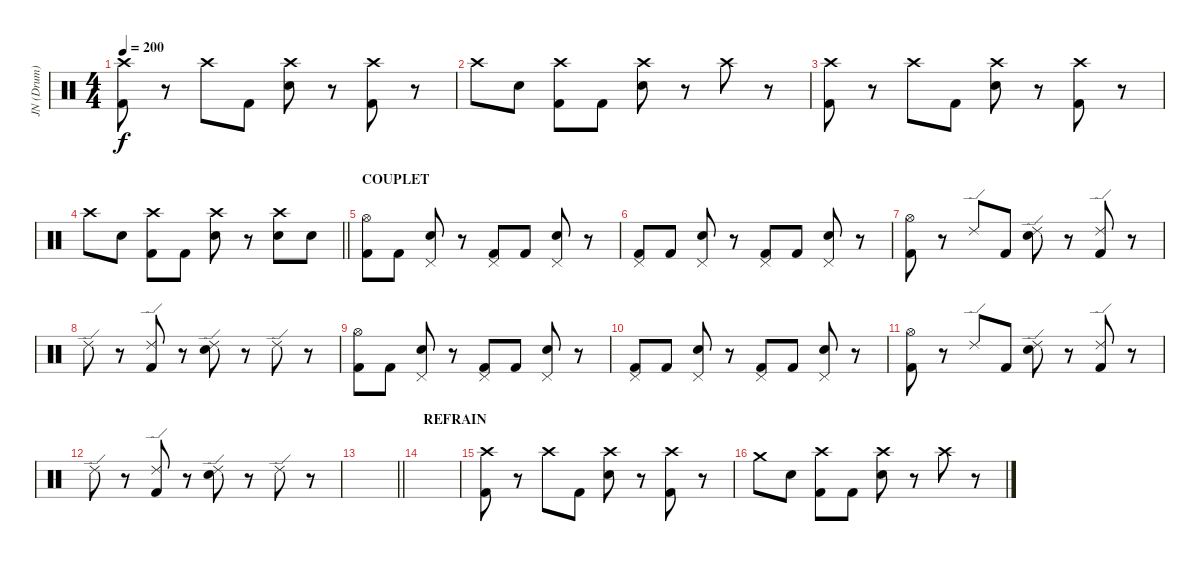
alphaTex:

\track ("JN (Drum)" "JN (Drum)") {instrument percussion}
\staff {score}
\articulation defaults
\ts (4 4)
\tempo 200
\clef neutral
\ks c
("Crash high (hit)" "Kick (hit) 2").8{dy f} r.8 "Crash high (hit)".8 "Kick (hit) 2".8 ("Crash high (hit)" "Electric Snare (hit)").8 r.8 ("Crash high (hit)" "Kick (hit) 2").8 r.8 |
"Crash high (hit)".8 "Electric Snare (hit)".8 ("Crash high (hit)" "Kick (hit) 2").8 "Kick (hit) 2".8 ("Crash high (hit)" "Electric Snare (hit)").8 r.8 "Crash high (hit)".8 r.8 |
("Crash high (hit)" "Kick (hit) 2").8 r.8 "Crash high (hit)".8 "Kick (hit) 2".8 ("Crash high (hit)" "Electric Snare (hit)").8 r.8 ("Crash high (hit)" "Kick (hit) 2").8 r.8 |
\barLineRight lightlight "Crash high (hit)".8 "Electric Snare (hit)".8
("Crash high (hit)" "Kick (hit) 2").8 "Kick (hit) 2".8 ("Crash high (hit)" "Electric Snare (hit)").8 r.8 ("Crash high (hit)" "Electric Snare (hit)").8 "Electric Snare (hit)".8 |
\section ("" "COUPLET")
("Hi-Hat (open)" "Kick (hit) 2").8 "Kick (hit) 2".8 ("Pedal Hi-Hat (hit)" "Electric Snare (hit)").8 r.8 ("Pedal Hi-Hat (hit)" "Kick (hit) 2").8 "Kick (hit) 2".8 ("Pedal Hi-Hat (hit)" "Electric Snare (hit)").8 r.8 |
("Pedal Hi-Hat (hit)" "Kick (hit) 2").8 "Kick (hit) 2".8 ("Pedal Hi-Hat (hit)" "Electric Snare (hit)").8 r.8 ("Pedal Hi-Hat (hit)" "Kick (hit) 2").8 "Kick (hit) 2".8 ("Pedal Hi-Hat (hit)" "Electric Snare (hit)").8 r.8 |
("Hi-Hat (open)" "Kick (hit) 2").8 r.8 "Ride (edge) 2".8 "Kick (hit) 2".8 ("Ride (edge) 2" "Electric Snare (hit)").8 r.8 ("Ride (edge) 2" "Kick (hit) 2").8 r.8 |
"Ride (edge) 2".8 r.8 ("Ride (edge) 2" "Kick (hit) 2").8 r.8 ("Ride (edge) 2" "Electric Snare (hit)").8 r.8 "Ride (edge) 2".8 r.8 |
("Hi-Hat (open)" "Kick (hit) 2").8 "Kick (hit) 2".8 ("Pedal Hi-Hat (hit)" "Electric Snare (hit)").8 r.8 ("Pedal Hi-Hat (hit)" "Kick (hit) 2").8 "Kick (hit) 2".8 ("Pedal Hi-Hat (hit)" "Electric Snare (hit)").8 r.8 |
("Pedal Hi-Hat (hit)" "Kick (hit) 2").8 "Kick (hit) 2".8 ("Pedal Hi-Hat (hit)" "Electric Snare (hit)").8 r.8 ("Pedal Hi-Hat (hit)" "Kick (hit) 2").8 "Kick (hit) 2".8 ("Pedal Hi-Hat (hit)" "Electric Snare (hit)").8 r.8 |
("Hi-Hat (open)" "Kick (hit) 2").8 r.8 "Ride (edge) 2".8 "Kick (hit) 2".8 ("Ride (edge) 2" "Electric Snare (hit)").8 r.8 ("Ride (edge) 2" "Kick (hit) 2").8 r.8 |
"Ride (edge) 2".8 r.8 ("Ride (edge) 2" "Kick (hit) 2").8 r.8 ("Ride (edge) 2" "Electric Snare (hit)").8 r.8 "Ride (edge) 2".8 r.8 |
\barLineRight lightlight
|
\section ("" "REFRAIN")
|
("Crash high (hit)" "Kick (hit) 2").8 r.8 "Crash high (hit)".8 "Kick (hit) 2".8 ("Crash high (hit)" "Electric Snare (hit)").8 r.8 ("Crash high (hit)" "Kick (hit) 2").8 r.8 |
"Crash medium (hit)".8 "Electric Snare (hit)".8 ("Crash high (hit)" "Kick (hit) 2").8 "Kick (hit) 2".8 ("Crash high (hit)" "Electric Snare (hit)").8 r.8 "Crash high (hit)".8 r.8
